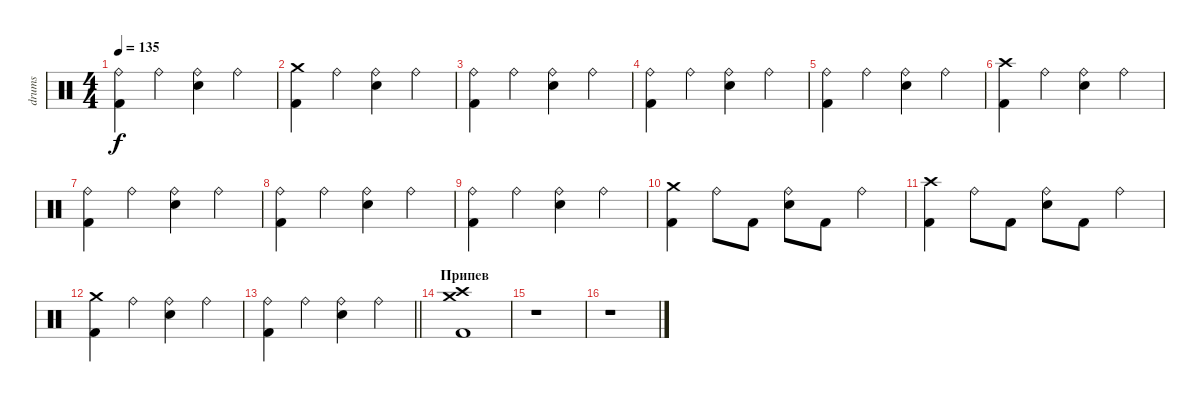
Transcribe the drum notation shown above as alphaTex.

\track ("drums" "drums") {instrument percussion}
\staff {score}
\articulation defaults
\ts (4 4)
\tempo 135
\clef neutral
\ks c
("Kick (hit) 2" "Ride (bell)").4{dy f} "Ride (bell)".4 ("Electric Snare (hit)" "Ride (bell)").4 "Ride (bell)".4 |
("Kick (hit) 2" "Crash medium (hit)").4 "Ride (bell)".4 ("Electric Snare (hit)" "Ride (bell)").4 "Ride (bell)".4 |
("Kick (hit) 2" "Ride (bell)").4 "Ride (bell)".4 ("Electric Snare (hit)" "Ride (bell)").4 "Ride (bell)".4 |
("Ride (bell)" "Kick (hit) 2").4 "Ride (bell)".4 ("Electric Snare (hit)" "Ride (bell)").4 "Ride (bell)".4 |
("Kick (hit) 2" "Ride (bell)").4 "Ride (bell)".4 ("Electric Snare (hit)" "Ride (bell)").4 "Ride (bell)".4 |
("Kick (hit) 2" "Crash high (hit)").4 "Ride (bell)".4 ("Electric Snare (hit)" "Ride (bell)").4 "Ride (bell)".4 |
("Kick (hit) 2" "Ride (bell)").4 "Ride (bell)".4 ("Electric Snare (hit)" "Ride (bell)").4 "Ride (bell)".4 |
("Ride (bell)" "Kick (hit) 2").4 "Ride (bell)".4 ("Electric Snare (hit)" "Ride (bell)").4 "Ride (bell)".4 |
("Kick (hit) 2" "Ride (bell)").4 "Ride (bell)".4 ("Electric Snare (hit)" "Ride (bell)").4 "Ride (bell)".4 |
("Kick (hit) 2" "Crash medium (hit)").4 "Ride (bell)".8 "Kick (hit) 2".8 ("Electric Snare (hit)" "Ride (bell)").8 "Kick (hit) 2".8 "Ride (bell)".4 |
("Kick (hit) 2" "Crash high (hit)").4 "Ride (bell)".8 "Kick (hit) 2".8 ("Electric Snare (hit)" "Ride (bell)").8 "Kick (hit) 2".8 "Ride (bell)".4 |
("Crash medium (hit)" "Kick (hit) 2").4 "Ride (bell)".4 ("Electric Snare (hit)" "Ride (bell)").4 "Ride (bell)".4 |
\barLineRight lightlight
("Kick (hit) 2" "Ride (bell)").4 "Ride (bell)".4 ("Electric Snare (hit)" "Ride (bell)").4 "Ride (bell)".4 |
\section ("" "Припев")
("Crash medium (hit)" "Crash high (hit)" "Kick (hit) 2").1 |
r.1 |
r.1
